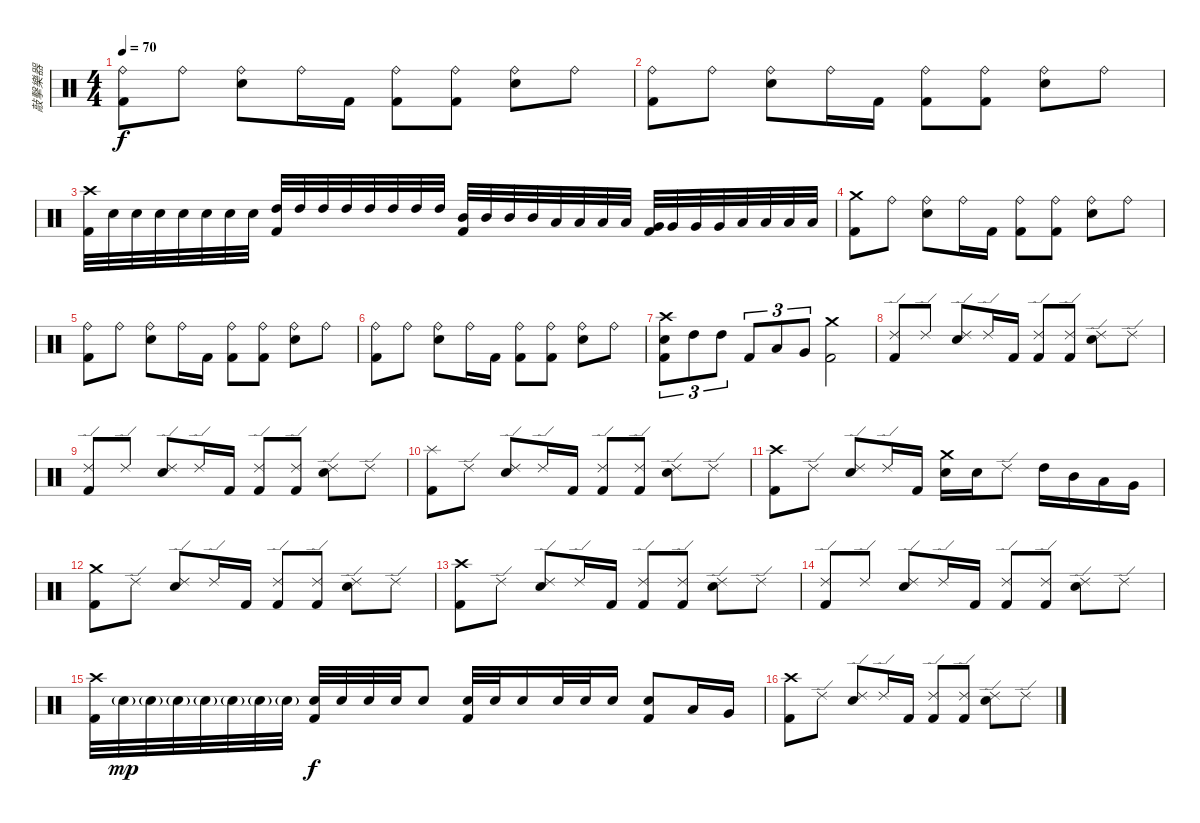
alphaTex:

\track ("敲擊樂器" "敲擊樂器") {instrument percussion}
\staff {score}
\articulation defaults
\ts (4 4)
\tempo 70
\clef neutral
\ks c
("Ride (bell)" "Kick (hit) 2").8{dy f} "Ride (bell)".8 ("Ride (bell)" "Snare (hit) 2").8 "Ride (bell)".16 "Kick (hit) 2".16 ("Ride (bell)" "Kick (hit) 2").8 ("Ride (bell)" "Kick (hit) 2").8 ("Ride (bell)" "Snare (hit) 2").8 "Ride (bell)".8 |
("Ride (bell)" "Kick (hit) 2").8 "Ride (bell)".8 ("Ride (bell)" "Snare (hit) 2").8 "Ride (bell)".16 "Kick (hit) 2".16 ("Ride (bell)" "Kick (hit) 2").8 ("Ride (bell)" "Kick (hit) 2").8 ("Ride (bell)" "Snare (hit) 2").8 "Ride (bell)".8 |
("Crash high (hit)" "Kick (hit) 2").32 "Snare (hit) 2".32 "Snare (hit) 2".32 "Snare (hit) 2".32 "Snare (hit) 2".32 "Snare (hit) 2".32 "Snare (hit) 2".32 "Snare (hit) 2".32 ("High Tom (hit)" "Kick (hit) 2").32 "High Tom (hit)".32 "High Tom (hit)".32 "High Tom (hit)".32 "High Tom (hit)".32 "High Tom (hit)".32 "High Tom (hit)".32 "High Tom (hit)".32 ("Mid Tom (hit)" "Kick (hit) 2").32 "Mid Tom (hit)".32 "Mid Tom (hit)".32 "Mid Tom (hit)".32 "Low Tom (hit)".32 "Low Tom (hit)".32 "Low Tom (hit)".32 "Low Tom (hit)".32 ("Very Low Tom (hit)" "Kick (hit) 2").32 "Very Low Tom (hit)".32 "Very Low Tom (hit)".32 "Very Low Tom (hit)".32 "Low Floor Tom (hit)".32 "Low Floor Tom (hit)".32 "Low Floor Tom (hit)".32 "Low Floor Tom (hit)".32 |
("Crash medium (hit)" "Kick (hit) 2").8 "Ride (bell)".8 ("Ride (bell)" "Snare (hit) 2").8 "Ride (bell)".16 "Kick (hit) 2".16 ("Ride (bell)" "Kick (hit) 2").8 ("Ride (bell)" "Kick (hit) 2").8 ("Ride (bell)" "Snare (hit) 2").8 "Ride (bell)".8 |
("Ride (bell)" "Kick (hit) 2").8 "Ride (bell)".8 ("Ride (bell)" "Snare (hit) 2").8 "Ride (bell)".16 "Kick (hit) 2".16 ("Ride (bell)" "Kick (hit) 2").8 ("Ride (bell)" "Kick (hit) 2").8 ("Ride (bell)" "Snare (hit) 2").8 "Ride (bell)".8 |
("Ride (bell)" "Kick (hit) 2").8 "Ride (bell)".8 ("Ride (bell)" "Snare (hit) 2").8 "Ride (bell)".16 "Kick (hit) 2".16 ("Ride (bell)" "Kick (hit) 2").8 ("Ride (bell)" "Kick (hit) 2").8 ("Ride (bell)" "Snare (hit) 2").8 "Ride (bell)".8 |
("Crash high (hit)" "Snare (hit) 2" "Kick (hit) 2").8{tu (3 2)} "High Tom (hit)".8{tu (3 2)} "High Tom (hit)".8{tu (3 2)} "Kick (hit) 2".8{tu (3 2)} "Low Tom (hit)".8{tu (3 2)} "Very Low Tom (hit)".8{tu (3 2)} ("Crash medium (hit)" "Kick (hit) 2").2 |
("Ride (edge) 2" "Kick (hit) 2").8 "Ride (edge) 2".8 ("Ride (edge) 2" "Snare (hit) 2").8 "Ride (edge) 2".16 "Kick (hit) 2".16 ("Ride (edge) 2" "Kick (hit) 2").8 ("Ride (edge) 2" "Kick (hit) 2").8 ("Ride (edge) 2" "Snare (hit) 2").8 "Ride (edge) 2".8 |
("Ride (edge) 2" "Kick (hit) 2").8 "Ride (edge) 2".8 ("Ride (edge) 2" "Snare (hit) 2").8 "Ride (edge) 2".16 "Kick (hit) 2".16 ("Ride (edge) 2" "Kick (hit) 2").8 ("Ride (edge) 2" "Kick (hit) 2").8 ("Ride (edge) 2" "Snare (hit) 2").8 "Ride (edge) 2".8 |
("Splash (hit)" "Kick (hit) 2").8 "Ride (edge) 2".8 ("Ride (edge) 2" "Snare (hit) 2").8 "Ride (edge) 2".16 "Kick (hit) 2".16 ("Ride (edge) 2" "Kick (hit) 2").8 ("Ride (edge) 2" "Kick (hit) 2").8 ("Ride (edge) 2" "Snare (hit) 2").8 "Ride (edge) 2".8 |
("Crash high (hit)" "Kick (hit) 2").8 "Ride (edge) 2".8 ("Ride (edge) 2" "Snare (hit) 2").8 "Ride (edge) 2".16 "Kick (hit) 2".16 ("Crash medium (hit)" "Snare (hit) 2").16 "Snare (hit) 2".16 "Ride (edge) 2".8 "High Tom (hit)".16 "Mid Tom (hit)".16 "Low Tom (hit)".16 "Very Low Tom (hit)".16 |
("Crash medium (hit)" "Kick (hit) 2").8 "Ride (edge) 2".8 ("Ride (edge) 2" "Snare (hit) 2").8 "Ride (edge) 2".16 "Kick (hit) 2".16 ("Ride (edge) 2" "Kick (hit) 2").8 ("Ride (edge) 2" "Kick (hit) 2").8 ("Ride (edge) 2" "Snare (hit) 2").8 "Ride (edge) 2".8 |
("Crash high (hit)" "Kick (hit) 2").8 "Ride (edge) 2".8 ("Ride (edge) 2" "Snare (hit) 2").8 "Ride (edge) 2".16 "Kick (hit) 2".16 ("Ride (edge) 2" "Kick (hit) 2").8 ("Ride (edge) 2" "Kick (hit) 2").8 ("Ride (edge) 2" "Snare (hit) 2").8 "Ride (edge) 2".8 |
("Ride (edge) 2" "Kick (hit) 2").8 "Ride (edge) 2".8 ("Ride (edge) 2" "Snare (hit) 2").8 "Ride (edge) 2".16 "Kick (hit) 2".16 ("Ride (edge) 2" "Kick (hit) 2").8 ("Ride (edge) 2" "Kick (hit) 2").8 ("Ride (edge) 2" "Snare (hit) 2").8 "Ride (edge) 2".8 |
("Crash high (hit)" "Kick (hit) 2").32 "Snare (hit) 2"{g}.32{dy mp} "Snare (hit) 2"{g}.32 "Snare (hit) 2"{g}.32 "Snare (hit) 2"{g}.32 "Snare (hit) 2"{g}.32 "Snare (hit) 2"{g}.32 "Snare (hit) 2"{g}.32 ("Snare (hit) 2" "Kick (hit) 2").32{dy f} "Snare (hit) 2".32 "Snare (hit) 2".32 "Snare (hit) 2".32 "Snare (hit) 2".8 ("Snare (hit) 2" "Kick (hit) 2").32 "Snare (hit) 2".32 "Snare (hit) 2".16 "Snare (hit) 2".32 "Snare (hit) 2".32 "Snare (hit) 2".16 ("Snare (hit) 2" "Kick (hit) 2").8 "Low Tom (hit)".16 "Very Low Tom (hit)".16 |
("Crash high (hit)" "Kick (hit) 2").8 "Ride (edge) 2".8 ("Ride (edge) 2" "Snare (hit) 2").8 "Ride (edge) 2".16 "Kick (hit) 2".16 ("Ride (edge) 2" "Kick (hit) 2").8 ("Ride (edge) 2" "Kick (hit) 2").8 ("Ride (edge) 2" "Snare (hit) 2").8 "Ride (edge) 2".8
